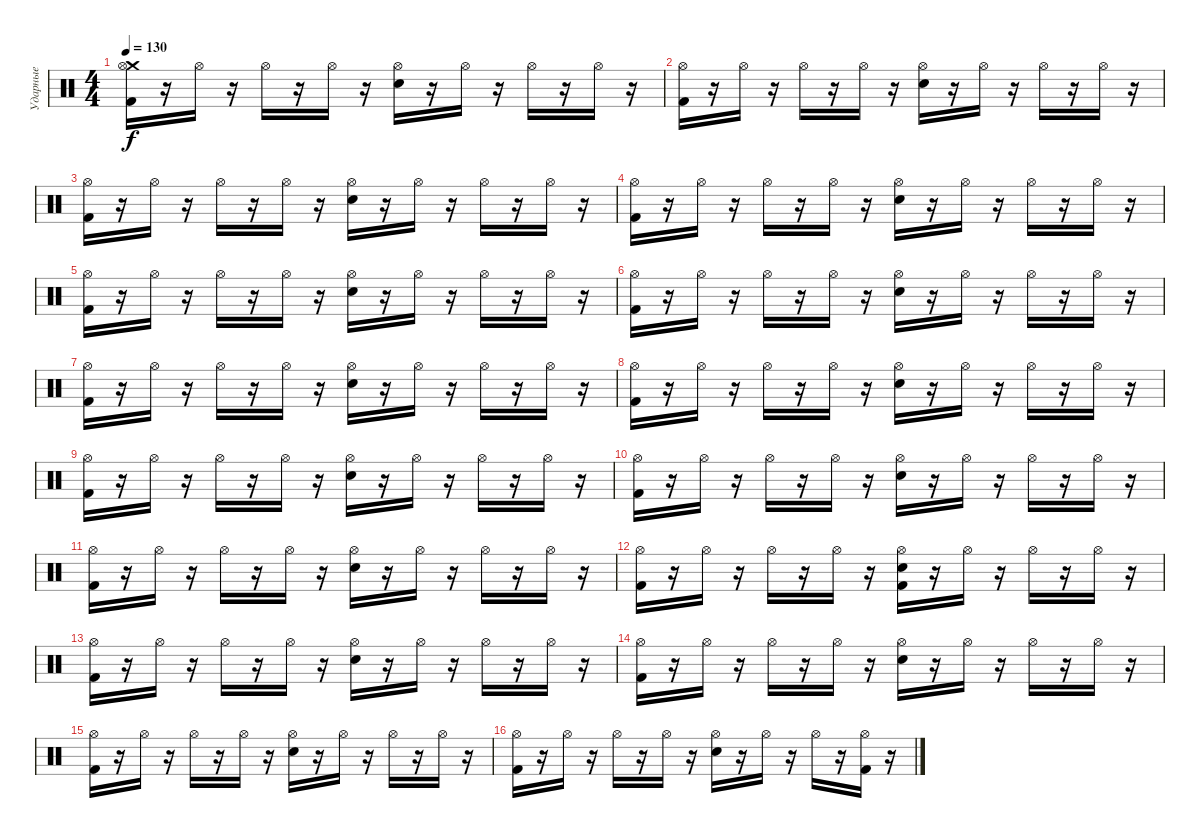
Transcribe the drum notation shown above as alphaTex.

\track ("Ударные" "Ударные") {instrument percussion}
\staff {score}
\articulation defaults
\ts (4 4)
\tempo 130
\clef neutral
\ks c
("Crash medium (hit)" "Hi-Hat (open)" "Kick (hit) 2").16{dy f} r.16 "Hi-Hat (open)".16 r.16 "Hi-Hat (open)".16 r.16 "Hi-Hat (open)".16 r.16 ("Hi-Hat (open)" "Snare (hit) 2").16 r.16 "Hi-Hat (open)".16 r.16 "Hi-Hat (open)".16 r.16 "Hi-Hat (open)".16 r.16 |
("Hi-Hat (open)" "Kick (hit) 2").16 r.16 "Hi-Hat (open)".16 r.16 "Hi-Hat (open)".16 r.16 "Hi-Hat (open)".16 r.16 ("Hi-Hat (open)" "Snare (hit) 2").16 r.16 "Hi-Hat (open)".16 r.16 "Hi-Hat (open)".16 r.16 "Hi-Hat (open)".16 r.16 |
("Hi-Hat (open)" "Kick (hit) 2").16 r.16 "Hi-Hat (open)".16 r.16 "Hi-Hat (open)".16 r.16 "Hi-Hat (open)".16 r.16 ("Hi-Hat (open)" "Snare (hit) 2").16 r.16 "Hi-Hat (open)".16 r.16 "Hi-Hat (open)".16 r.16 "Hi-Hat (open)".16 r.16 |
("Hi-Hat (open)" "Kick (hit) 2").16 r.16 "Hi-Hat (open)".16 r.16 "Hi-Hat (open)".16 r.16 "Hi-Hat (open)".16 r.16 ("Hi-Hat (open)" "Snare (hit) 2").16 r.16 "Hi-Hat (open)".16 r.16 "Hi-Hat (open)".16 r.16 "Hi-Hat (open)".16 r.16 |
("Hi-Hat (open)" "Kick (hit) 2").16 r.16 "Hi-Hat (open)".16 r.16 "Hi-Hat (open)".16 r.16 "Hi-Hat (open)".16 r.16 ("Hi-Hat (open)" "Snare (hit) 2").16 r.16 "Hi-Hat (open)".16 r.16 "Hi-Hat (open)".16 r.16 "Hi-Hat (open)".16 r.16 |
("Hi-Hat (open)" "Kick (hit) 2").16 r.16 "Hi-Hat (open)".16 r.16 "Hi-Hat (open)".16 r.16 "Hi-Hat (open)".16 r.16 ("Hi-Hat (open)" "Snare (hit) 2").16 r.16 "Hi-Hat (open)".16 r.16 "Hi-Hat (open)".16 r.16 "Hi-Hat (open)".16 r.16 |
("Hi-Hat (open)" "Kick (hit) 2").16 r.16 "Hi-Hat (open)".16 r.16 "Hi-Hat (open)".16 r.16 "Hi-Hat (open)".16 r.16 ("Hi-Hat (open)" "Snare (hit) 2").16 r.16 "Hi-Hat (open)".16 r.16 "Hi-Hat (open)".16 r.16 "Hi-Hat (open)".16 r.16 |
("Hi-Hat (open)" "Kick (hit) 2").16 r.16 "Hi-Hat (open)".16 r.16 "Hi-Hat (open)".16 r.16 "Hi-Hat (open)".16 r.16 ("Hi-Hat (open)" "Snare (hit) 2").16 r.16 "Hi-Hat (open)".16 r.16 "Hi-Hat (open)".16 r.16 "Hi-Hat (open)".16 r.16 |
("Hi-Hat (open)" "Kick (hit) 2").16 r.16 "Hi-Hat (open)".16 r.16 "Hi-Hat (open)".16 r.16 "Hi-Hat (open)".16 r.16 ("Hi-Hat (open)" "Snare (hit) 2").16 r.16 "Hi-Hat (open)".16 r.16 "Hi-Hat (open)".16 r.16 "Hi-Hat (open)".16 r.16 |
("Hi-Hat (open)" "Kick (hit) 2").16 r.16 "Hi-Hat (open)".16 r.16 "Hi-Hat (open)".16 r.16 "Hi-Hat (open)".16 r.16 ("Hi-Hat (open)" "Snare (hit) 2").16 r.16 "Hi-Hat (open)".16 r.16 "Hi-Hat (open)".16 r.16 "Hi-Hat (open)".16 r.16 |
("Hi-Hat (open)" "Kick (hit) 2").16 r.16 "Hi-Hat (open)".16 r.16 "Hi-Hat (open)".16 r.16 "Hi-Hat (open)".16 r.16 ("Hi-Hat (open)" "Snare (hit) 2").16 r.16 "Hi-Hat (open)".16 r.16 "Hi-Hat (open)".16 r.16 "Hi-Hat (open)".16 r.16 |
("Hi-Hat (open)" "Kick (hit) 2").16 r.16 "Hi-Hat (open)".16 r.16 "Hi-Hat (open)".16 r.16 "Hi-Hat (open)".16 r.16 ("Hi-Hat (open)" "Snare (hit) 2" "Kick (hit) 2").16 r.16 "Hi-Hat (open)".16 r.16 "Hi-Hat (open)".16 r.16 "Hi-Hat (open)".16 r.16 |
("Hi-Hat (open)" "Kick (hit) 2").16 r.16 "Hi-Hat (open)".16 r.16 "Hi-Hat (open)".16 r.16 "Hi-Hat (open)".16 r.16 ("Hi-Hat (open)" "Snare (hit) 2").16 r.16 "Hi-Hat (open)".16 r.16 "Hi-Hat (open)".16 r.16 "Hi-Hat (open)".16 r.16 |
("Hi-Hat (open)" "Kick (hit) 2").16 r.16 "Hi-Hat (open)".16 r.16 "Hi-Hat (open)".16 r.16 "Hi-Hat (open)".16 r.16 ("Hi-Hat (open)" "Snare (hit) 2").16 r.16 "Hi-Hat (open)".16 r.16 "Hi-Hat (open)".16 r.16 "Hi-Hat (open)".16 r.16 |
("Hi-Hat (open)" "Kick (hit) 2").16 r.16 "Hi-Hat (open)".16 r.16 "Hi-Hat (open)".16 r.16 "Hi-Hat (open)".16 r.16 ("Hi-Hat (open)" "Snare (hit) 2").16 r.16 "Hi-Hat (open)".16 r.16 "Hi-Hat (open)".16 r.16 "Hi-Hat (open)".16 r.16 |
("Hi-Hat (open)" "Kick (hit) 2").16 r.16 "Hi-Hat (open)".16 r.16 "Hi-Hat (open)".16 r.16 "Hi-Hat (open)".16 r.16 ("Hi-Hat (open)" "Snare (hit) 2").16 r.16 "Hi-Hat (open)".16 r.16 "Hi-Hat (open)".16 r.16 ("Hi-Hat (open)" "Kick (hit) 2").16 r.16
